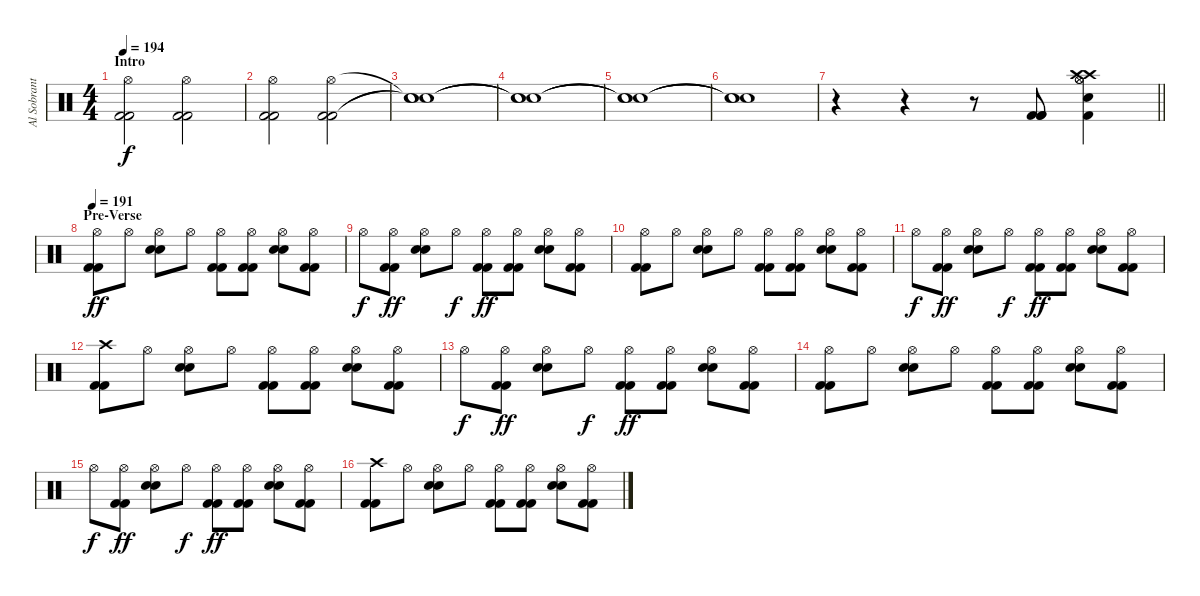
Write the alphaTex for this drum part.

\track ("Al Sobrante (Drums)" "Al Sobrant") {instrument percussion}
\staff {score}
\articulation defaults
\ts (4 4)
\section ("" "Intro")
\tempo 194
\clef neutral
\ks c
("Hi-Hat (open)" "Kick (hit) 2" "Kick (hit) 2").2{dy f} ("Hi-Hat (open)" "Kick (hit) 2" "Kick (hit) 2").2 |
("Hi-Hat (open)" "Kick (hit) 2" "Kick (hit) 2").2 ("Hi-Hat (open)" "Kick (hit) 2" "Kick (hit) 2").2 |
("Snare (hit)"{t} "Snare (hit)"{t} "Snare (hit)"{t}).1 |
("Snare (hit)"{t} "Snare (hit)"{t} "Snare (hit)"{t}).1 |
("Snare (hit)"{t} "Snare (hit)"{t} "Snare (hit)"{t}).1 |
("Snare (hit)"{t} "Snare (hit)"{t} "Snare (hit)"{t}).1 |
\barLineRight lightlight
r.4 r.4 r.8 ("Kick (hit) 2" "Kick (hit) 2" "Kick (hit) 2").8 ("Hi-Hat (open)" "Kick (hit) 2" "Electric Snare (hit)" "Hi-Hat (open)" "Crash high (hit)" "Crash high (hit)").4 |
\section ("" "Pre-Verse")
\tempo 191
("Kick (hit) 2" "Kick (hit) 2" "Hi-Hat (open)").8{dy ff} "Hi-Hat (open)".8 ("Electric Snare (hit)" "Electric Snare (hit)" "Hi-Hat (open)").8 "Hi-Hat (open)".8 ("Kick (hit) 2" "Kick (hit) 2" "Hi-Hat (open)").8 ("Kick (hit) 2" "Kick (hit) 2" "Hi-Hat (open)").8 ("Electric Snare (hit)" "Electric Snare (hit)" "Hi-Hat (open)").8 ("Kick (hit) 2" "Kick (hit) 2" "Hi-Hat (open)").8 |
"Hi-Hat (open)".8{dy f} ("Kick (hit) 2" "Kick (hit) 2" "Hi-Hat (open)").8{dy ff} ("Electric Snare (hit)" "Electric Snare (hit)" "Hi-Hat (open)").8 "Hi-Hat (open)".8{dy f} ("Kick (hit) 2" "Kick (hit) 2" "Hi-Hat (open)").8{dy ff} ("Kick (hit) 2" "Kick (hit) 2" "Hi-Hat (open)").8 ("Electric Snare (hit)" "Electric Snare (hit)" "Hi-Hat (open)").8 ("Kick (hit) 2" "Kick (hit) 2" "Hi-Hat (open)").8 |
("Kick (hit) 2" "Kick (hit) 2" "Hi-Hat (open)").8 "Hi-Hat (open)".8 ("Electric Snare (hit)" "Electric Snare (hit)" "Hi-Hat (open)").8 "Hi-Hat (open)".8 ("Kick (hit) 2" "Kick (hit) 2" "Hi-Hat (open)").8 ("Kick (hit) 2" "Kick (hit) 2" "Hi-Hat (open)").8 ("Electric Snare (hit)" "Electric Snare (hit)" "Hi-Hat (open)").8 ("Kick (hit) 2" "Kick (hit) 2" "Hi-Hat (open)").8 |
"Hi-Hat (open)".8{dy f} ("Kick (hit) 2" "Kick (hit) 2" "Hi-Hat (open)").8{dy ff} ("Electric Snare (hit)" "Electric Snare (hit)" "Hi-Hat (open)").8 "Hi-Hat (open)".8{dy f} ("Kick (hit) 2" "Kick (hit) 2" "Hi-Hat (open)").8{dy ff} ("Kick (hit) 2" "Kick (hit) 2" "Hi-Hat (open)").8 ("Electric Snare (hit)" "Electric Snare (hit)" "Hi-Hat (open)").8 ("Kick (hit) 2" "Kick (hit) 2" "Hi-Hat (open)").8 |
("Kick (hit) 2" "Kick (hit) 2" "Crash high (hit)").8 "Hi-Hat (open)".8 ("Electric Snare (hit)" "Electric Snare (hit)" "Hi-Hat (open)").8 "Hi-Hat (open)".8 ("Kick (hit) 2" "Kick (hit) 2" "Hi-Hat (open)").8 ("Kick (hit) 2" "Kick (hit) 2" "Hi-Hat (open)").8 ("Electric Snare (hit)" "Electric Snare (hit)" "Hi-Hat (open)").8 ("Kick (hit) 2" "Kick (hit) 2" "Hi-Hat (open)").8 |
"Hi-Hat (open)".8{dy f} ("Kick (hit) 2" "Kick (hit) 2" "Hi-Hat (open)").8{dy ff} ("Electric Snare (hit)" "Electric Snare (hit)" "Hi-Hat (open)").8 "Hi-Hat (open)".8{dy f} ("Kick (hit) 2" "Kick (hit) 2" "Hi-Hat (open)").8{dy ff} ("Kick (hit) 2" "Kick (hit) 2" "Hi-Hat (open)").8 ("Electric Snare (hit)" "Electric Snare (hit)" "Hi-Hat (open)").8 ("Kick (hit) 2" "Kick (hit) 2" "Hi-Hat (open)").8 |
("Kick (hit) 2" "Kick (hit) 2" "Hi-Hat (open)").8 "Hi-Hat (open)".8 ("Electric Snare (hit)" "Electric Snare (hit)" "Hi-Hat (open)").8 "Hi-Hat (open)".8 ("Kick (hit) 2" "Kick (hit) 2" "Hi-Hat (open)").8 ("Kick (hit) 2" "Kick (hit) 2" "Hi-Hat (open)").8 ("Electric Snare (hit)" "Electric Snare (hit)" "Hi-Hat (open)").8 ("Kick (hit) 2" "Kick (hit) 2" "Hi-Hat (open)").8 |
"Hi-Hat (open)".8{dy f} ("Kick (hit) 2" "Kick (hit) 2" "Hi-Hat (open)").8{dy ff} ("Electric Snare (hit)" "Electric Snare (hit)" "Hi-Hat (open)").8 "Hi-Hat (open)".8{dy f} ("Kick (hit) 2" "Kick (hit) 2" "Hi-Hat (open)").8{dy ff} ("Kick (hit) 2" "Kick (hit) 2" "Hi-Hat (open)").8 ("Electric Snare (hit)" "Electric Snare (hit)" "Hi-Hat (open)").8 ("Kick (hit) 2" "Kick (hit) 2" "Hi-Hat (open)").8 |
("Kick (hit) 2" "Kick (hit) 2" "Crash high (hit)").8 "Hi-Hat (open)".8 ("Electric Snare (hit)" "Electric Snare (hit)" "Hi-Hat (open)").8 "Hi-Hat (open)".8 ("Kick (hit) 2" "Kick (hit) 2" "Hi-Hat (open)").8 ("Kick (hit) 2" "Kick (hit) 2" "Hi-Hat (open)").8 ("Electric Snare (hit)" "Electric Snare (hit)" "Hi-Hat (open)").8 ("Kick (hit) 2" "Kick (hit) 2" "Hi-Hat (open)").8
